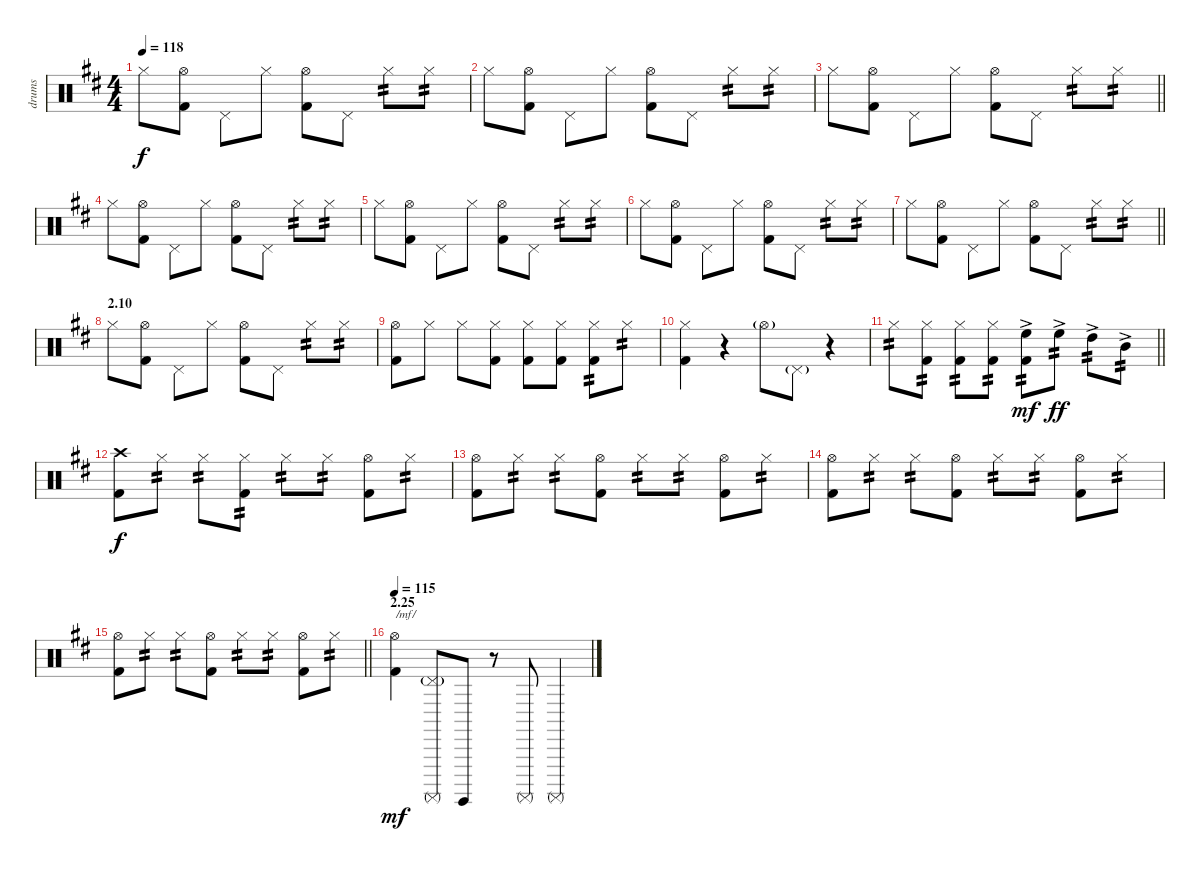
\track ("drums" "drums") {instrument percussion}
\staff {score}
\articulation defaults
\ts (4 4)
\tempo 118
\clef neutral
\ks d "Hi-Hat (closed)".8{dy f}
("Hi-Hat (open)" "Kick (hit) 2").8 "Pedal Hi-Hat (hit)".8 "Hi-Hat (closed)".8 ("Hi-Hat (open)" "Kick (hit) 2").8 "Pedal Hi-Hat (hit)".8 "Hi-Hat (closed)".8{tp 2} "Hi-Hat (closed)".8{tp 2} |
"Hi-Hat (closed)".8 ("Hi-Hat (open)" "Kick (hit) 2").8 "Pedal Hi-Hat (hit)".8 "Hi-Hat (closed)".8 ("Hi-Hat (open)" "Kick (hit) 2").8 "Pedal Hi-Hat (hit)".8 "Hi-Hat (closed)".8{tp 2} "Hi-Hat (closed)".8{tp 2} |
\barLineRight lightlight "Hi-Hat (closed)".8
("Hi-Hat (open)" "Kick (hit) 2").8 "Pedal Hi-Hat (hit)".8 "Hi-Hat (closed)".8 ("Hi-Hat (open)" "Kick (hit) 2").8 "Pedal Hi-Hat (hit)".8 "Hi-Hat (closed)".8{tp 2} "Hi-Hat (closed)".8{tp 2} |
"Hi-Hat (closed)".8 ("Hi-Hat (open)" "Kick (hit) 2").8 "Pedal Hi-Hat (hit)".8 "Hi-Hat (closed)".8 ("Hi-Hat (open)" "Kick (hit) 2").8 "Pedal Hi-Hat (hit)".8 "Hi-Hat (closed)".8{tp 2} "Hi-Hat (closed)".8{tp 2} |
"Hi-Hat (closed)".8 ("Hi-Hat (open)" "Kick (hit) 2").8 "Pedal Hi-Hat (hit)".8 "Hi-Hat (closed)".8 ("Hi-Hat (open)" "Kick (hit) 2").8 "Pedal Hi-Hat (hit)".8 "Hi-Hat (closed)".8{tp 2} "Hi-Hat (closed)".8{tp 2} |
"Hi-Hat (closed)".8 ("Hi-Hat (open)" "Kick (hit) 2").8 "Pedal Hi-Hat (hit)".8 "Hi-Hat (closed)".8 ("Hi-Hat (open)" "Kick (hit) 2").8 "Pedal Hi-Hat (hit)".8 "Hi-Hat (closed)".8{tp 2} "Hi-Hat (closed)".8{tp 2} |
\barLineRight lightlight "Hi-Hat (closed)".8
("Hi-Hat (open)" "Kick (hit) 2").8 "Pedal Hi-Hat (hit)".8 "Hi-Hat (closed)".8 ("Hi-Hat (open)" "Kick (hit) 2").8 "Pedal Hi-Hat (hit)".8 "Hi-Hat (closed)".8{tp 2} "Hi-Hat (closed)".8{tp 2} |
\section ("" "2.10")
"Hi-Hat (closed)".8 ("Hi-Hat (open)" "Kick (hit) 2").8 "Pedal Hi-Hat (hit)".8 "Hi-Hat (closed)".8 ("Hi-Hat (open)" "Kick (hit) 2").8 "Pedal Hi-Hat (hit)".8 "Hi-Hat (closed)".8{tp 2} "Hi-Hat (closed)".8{tp 2} |
("Hi-Hat (open)" "Kick (hit) 2").8 "Hi-Hat (closed)".8 "Hi-Hat (closed)".8 ("Hi-Hat (closed)" "Kick (hit) 2").8 ("Hi-Hat (closed)" "Kick (hit) 2").8 ("Hi-Hat (closed)" "Kick (hit) 2").8 ("Hi-Hat (closed)" "Kick (hit) 2").8{tp 2} "Hi-Hat (closed)".8{tp 2} |
("Hi-Hat (closed)" "Kick (hit) 2").4 r.4 "Hi-Hat (open)"{g}.8 "Pedal Hi-Hat (hit)"{g}.8 r.4 |
\barLineRight lightlight "Hi-Hat (closed)".8{tp 2}
("Hi-Hat (closed)" "Kick (hit) 2").8{tp 2} ("Hi-Hat (closed)" "Kick (hit) 2").8{tp 2} ("Hi-Hat (closed)" "Kick (hit) 2").8{tp 2} ("High Floor Tom (hit)"{ac} "Kick (hit) 2").8{tp 2 dy mf} "High Floor Tom (hit)"{ac}.8{tp 2 dy ff} "High Tom (hit)"{ac}.8{tp 2} "Mid Tom (hit)"{ac}.8{tp 2} |
("Crash high (hit)" "Kick (hit) 2").8{dy f} "Hi-Hat (closed)".8{tp 2} "Hi-Hat (closed)".8{tp 2} ("Hi-Hat (closed)" "Kick (hit) 2").8{tp 2} "Hi-Hat (closed)".8{tp 2} "Hi-Hat (closed)".8{tp 2} ("Hi-Hat (open)" "Kick (hit) 2").8 "Hi-Hat (closed)".8{tp 2} |
("Hi-Hat (open)" "Kick (hit) 2").8 "Hi-Hat (closed)".8{tp 2} "Hi-Hat (closed)".8{tp 2} ("Hi-Hat (open)" "Kick (hit) 2").8 "Hi-Hat (closed)".8{tp 2} "Hi-Hat (closed)".8{tp 2} ("Hi-Hat (open)" "Kick (hit) 2").8 "Hi-Hat (closed)".8{tp 2} |
("Hi-Hat (open)" "Kick (hit) 2").8 "Hi-Hat (closed)".8{tp 2} "Hi-Hat (closed)".8{tp 2} ("Hi-Hat (open)" "Kick (hit) 2").8 "Hi-Hat (closed)".8{tp 2} "Hi-Hat (closed)".8{tp 2} ("Hi-Hat (open)" "Kick (hit) 2").8 "Hi-Hat (closed)".8{tp 2} |
\barLineRight lightlight
("Hi-Hat (open)" "Kick (hit) 2").8 "Hi-Hat (closed)".8{tp 2} "Hi-Hat (closed)".8{tp 2} ("Hi-Hat (open)" "Kick (hit) 2").8 "Hi-Hat (closed)".8{tp 2} "Hi-Hat (closed)".8{tp 2} ("Hi-Hat (open)" "Kick (hit) 2").8 "Hi-Hat (closed)".8{tp 2} |
\section ("" "2.25")
\tempo 115
("Hi-Hat (open)" "Kick (hit) 2").4{txt "/mf/" dy mf} ("Pedal Hi-Hat (hit)"{g} "Surdo (mute)").8 "Surdo (hit)".8 r.8 "Surdo (mute)".8 "Surdo (mute)".4
